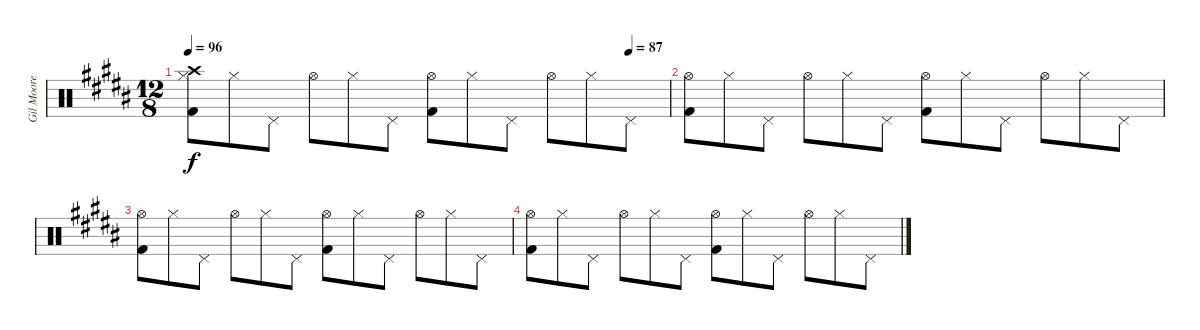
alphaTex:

\track ("Gil Moore" "Gil Moore") {instrument percussion}
\staff {score}
\articulation defaults
\ts (12 8)
\tempo 96
\tempo (87 0.9166666666666666)
\clef neutral
\ks b
("Kick (hit) 2" "Hi-Hat (closed)" "Crash high (hit)").8{dy f} "Hi-Hat (closed)".8 "Pedal Hi-Hat (hit)".8 "Hi-Hat (open)".8 "Hi-Hat (closed)".8 "Pedal Hi-Hat (hit)".8 ("Hi-Hat (open)" "Kick (hit) 2").8 "Hi-Hat (closed)".8 "Pedal Hi-Hat (hit)".8 "Hi-Hat (open)".8 "Hi-Hat (closed)".8 "Pedal Hi-Hat (hit)".8 |
("Hi-Hat (open)" "Kick (hit) 2").8 "Hi-Hat (closed)".8 "Pedal Hi-Hat (hit)".8 "Hi-Hat (open)".8 "Hi-Hat (closed)".8 "Pedal Hi-Hat (hit)".8 ("Hi-Hat (open)" "Kick (hit) 2").8 "Hi-Hat (closed)".8 "Pedal Hi-Hat (hit)".8 "Hi-Hat (open)".8 "Hi-Hat (closed)".8 "Pedal Hi-Hat (hit)".8 |
("Hi-Hat (open)" "Kick (hit) 2").8 "Hi-Hat (closed)".8 "Pedal Hi-Hat (hit)".8 "Hi-Hat (open)".8 "Hi-Hat (closed)".8 "Pedal Hi-Hat (hit)".8 ("Hi-Hat (open)" "Kick (hit) 2").8 "Hi-Hat (closed)".8 "Pedal Hi-Hat (hit)".8 "Hi-Hat (open)".8 "Hi-Hat (closed)".8 "Pedal Hi-Hat (hit)".8 |
("Hi-Hat (open)" "Kick (hit) 2").8 "Hi-Hat (closed)".8 "Pedal Hi-Hat (hit)".8 "Hi-Hat (open)".8 "Hi-Hat (closed)".8 "Pedal Hi-Hat (hit)".8 ("Hi-Hat (open)" "Kick (hit) 2").8 "Hi-Hat (closed)".8 "Pedal Hi-Hat (hit)".8 "Hi-Hat (open)".8 "Hi-Hat (closed)".8 "Pedal Hi-Hat (hit)".8
